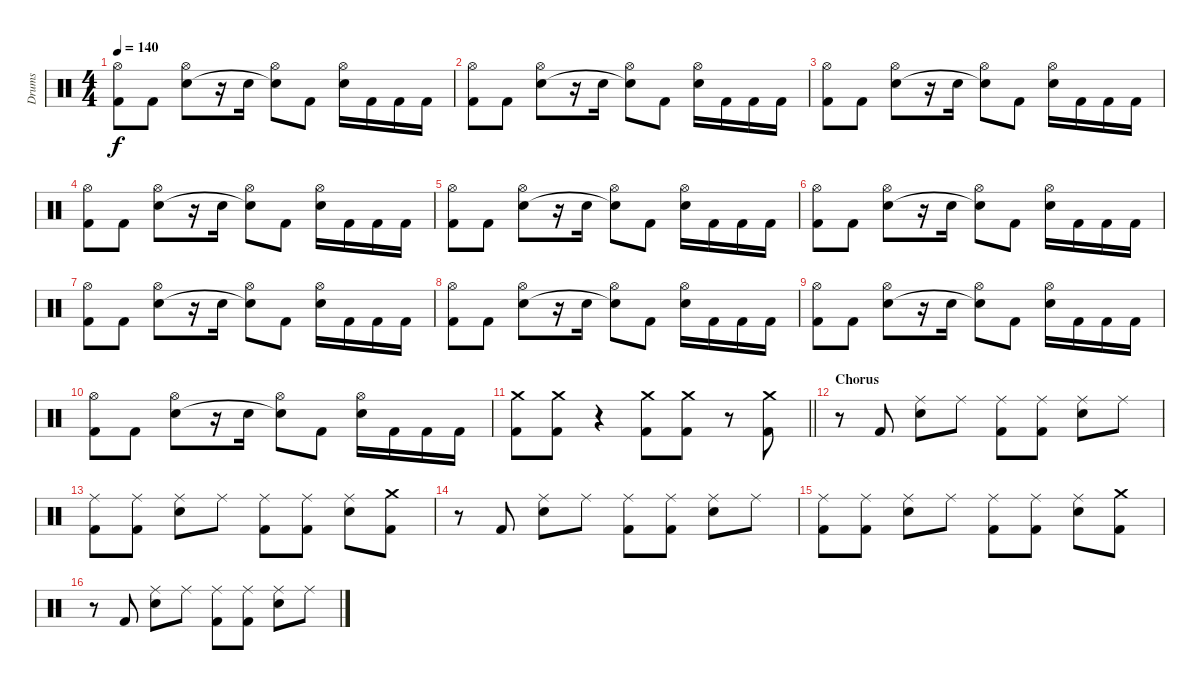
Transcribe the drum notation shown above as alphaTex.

\track ("Drums" "Drums") {instrument percussion}
\staff {score}
\articulation defaults
\ts (4 4)
\tempo 140
\clef neutral
\ks c
("Hi-Hat (open)" "Kick (hit) 2").8{dy f} "Kick (hit) 2".8 ("Hi-Hat (open)" "Snare (hit) 2").8 r.16 "Snare (hit) 2".16 ("Hi-Hat (open)" "Snare (hit) 2"{t}).8 "Kick (hit) 2".8 ("Hi-Hat (open)" "Snare (hit) 2").16 "Kick (hit) 2".16 "Kick (hit) 2".16 "Kick (hit) 2".16 |
("Hi-Hat (open)" "Kick (hit) 2").8 "Kick (hit) 2".8 ("Hi-Hat (open)" "Snare (hit) 2").8 r.16 "Snare (hit) 2".16 ("Hi-Hat (open)" "Snare (hit) 2"{t}).8 "Kick (hit) 2".8 ("Hi-Hat (open)" "Snare (hit) 2").16 "Kick (hit) 2".16 "Kick (hit) 2".16 "Kick (hit) 2".16 |
("Hi-Hat (open)" "Kick (hit) 2").8 "Kick (hit) 2".8 ("Hi-Hat (open)" "Snare (hit) 2").8 r.16 "Snare (hit) 2".16 ("Hi-Hat (open)" "Snare (hit) 2"{t}).8 "Kick (hit) 2".8 ("Hi-Hat (open)" "Snare (hit) 2").16 "Kick (hit) 2".16 "Kick (hit) 2".16 "Kick (hit) 2".16 |
("Hi-Hat (open)" "Kick (hit) 2").8 "Kick (hit) 2".8 ("Hi-Hat (open)" "Snare (hit) 2").8 r.16 "Snare (hit) 2".16 ("Hi-Hat (open)" "Snare (hit) 2"{t}).8 "Kick (hit) 2".8 ("Hi-Hat (open)" "Snare (hit) 2").16 "Kick (hit) 2".16 "Kick (hit) 2".16 "Kick (hit) 2".16 |
("Hi-Hat (open)" "Kick (hit) 2").8 "Kick (hit) 2".8 ("Hi-Hat (open)" "Snare (hit) 2").8 r.16 "Snare (hit) 2".16 ("Hi-Hat (open)" "Snare (hit) 2"{t}).8 "Kick (hit) 2".8 ("Hi-Hat (open)" "Snare (hit) 2").16 "Kick (hit) 2".16 "Kick (hit) 2".16 "Kick (hit) 2".16 |
("Hi-Hat (open)" "Kick (hit) 2").8 "Kick (hit) 2".8 ("Hi-Hat (open)" "Snare (hit) 2").8 r.16 "Snare (hit) 2".16 ("Hi-Hat (open)" "Snare (hit) 2"{t}).8 "Kick (hit) 2".8 ("Hi-Hat (open)" "Snare (hit) 2").16 "Kick (hit) 2".16 "Kick (hit) 2".16 "Kick (hit) 2".16 |
("Hi-Hat (open)" "Kick (hit) 2").8 "Kick (hit) 2".8 ("Hi-Hat (open)" "Snare (hit) 2").8 r.16 "Snare (hit) 2".16 ("Hi-Hat (open)" "Snare (hit) 2"{t}).8 "Kick (hit) 2".8 ("Hi-Hat (open)" "Snare (hit) 2").16 "Kick (hit) 2".16 "Kick (hit) 2".16 "Kick (hit) 2".16 |
("Hi-Hat (open)" "Kick (hit) 2").8 "Kick (hit) 2".8 ("Hi-Hat (open)" "Snare (hit) 2").8 r.16 "Snare (hit) 2".16 ("Hi-Hat (open)" "Snare (hit) 2"{t}).8 "Kick (hit) 2".8 ("Hi-Hat (open)" "Snare (hit) 2").16 "Kick (hit) 2".16 "Kick (hit) 2".16 "Kick (hit) 2".16 |
("Hi-Hat (open)" "Kick (hit) 2").8 "Kick (hit) 2".8 ("Hi-Hat (open)" "Snare (hit) 2").8 r.16 "Snare (hit) 2".16 ("Hi-Hat (open)" "Snare (hit) 2"{t}).8 "Kick (hit) 2".8 ("Hi-Hat (open)" "Snare (hit) 2").16 "Kick (hit) 2".16 "Kick (hit) 2".16 "Kick (hit) 2".16 |
("Hi-Hat (open)" "Kick (hit) 2").8 "Kick (hit) 2".8 ("Hi-Hat (open)" "Snare (hit) 2").8 r.16 "Snare (hit) 2".16 ("Hi-Hat (open)" "Snare (hit) 2"{t}).8 "Kick (hit) 2".8 ("Hi-Hat (open)" "Snare (hit) 2").16 "Kick (hit) 2".16 "Kick (hit) 2".16 "Kick (hit) 2".16 |
\barLineRight lightlight
("Crash medium (hit)" "Kick (hit) 2").8 ("Crash medium (hit)" "Kick (hit) 2").8 r.4 ("Crash medium (hit)" "Kick (hit) 2").8 ("Crash medium (hit)" "Kick (hit) 2").8 r.8 ("Crash medium (hit)" "Kick (hit) 2").8 |
\section ("" "Chorus")
r.8 "Kick (hit) 2".8 ("Ride (middle)" "Snare (hit) 2").8 "Ride (middle)".8 ("Ride (middle)" "Kick (hit) 2").8 ("Ride (middle)" "Kick (hit) 2").8 ("Ride (middle)" "Snare (hit) 2").8 "Ride (middle)".8 |
("Ride (middle)" "Kick (hit) 2").8 ("Ride (middle)" "Kick (hit) 2").8 ("Ride (middle)" "Snare (hit) 2").8 "Ride (middle)".8 ("Ride (middle)" "Kick (hit) 2").8 ("Ride (middle)" "Kick (hit) 2").8 ("Ride (middle)" "Snare (hit) 2").8 ("Crash medium (hit)" "Kick (hit) 2").8 |
r.8 "Kick (hit) 2".8 ("Ride (middle)" "Snare (hit) 2").8 "Ride (middle)".8 ("Ride (middle)" "Kick (hit) 2").8 ("Ride (middle)" "Kick (hit) 2").8 ("Ride (middle)" "Snare (hit) 2").8 "Ride (middle)".8 |
("Ride (middle)" "Kick (hit) 2").8 ("Ride (middle)" "Kick (hit) 2").8 ("Ride (middle)" "Snare (hit) 2").8 "Ride (middle)".8 ("Ride (middle)" "Kick (hit) 2").8 ("Ride (middle)" "Kick (hit) 2").8 ("Ride (middle)" "Snare (hit) 2").8 ("Crash medium (hit)" "Kick (hit) 2").8 |
r.8 "Kick (hit) 2".8 ("Ride (middle)" "Snare (hit) 2").8 "Ride (middle)".8 ("Ride (middle)" "Kick (hit) 2").8 ("Ride (middle)" "Kick (hit) 2").8 ("Ride (middle)" "Snare (hit) 2").8 "Ride (middle)".8
